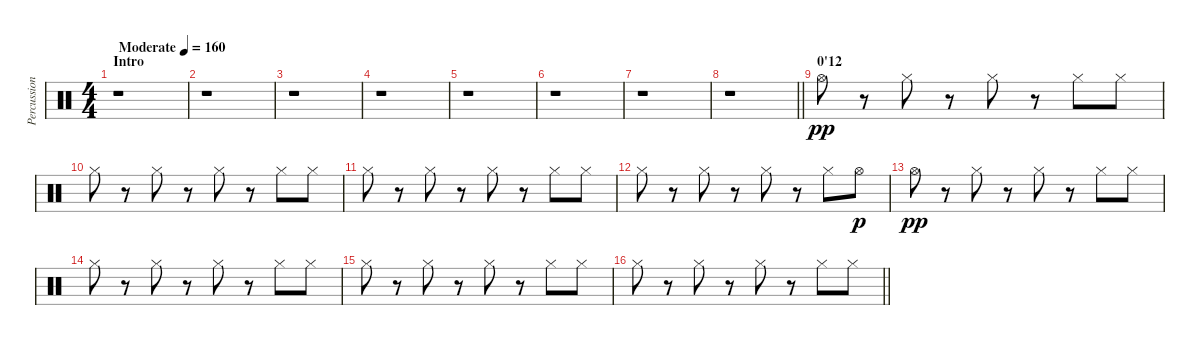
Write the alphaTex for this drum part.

\track ("Percussions" "Percussion") {instrument percussion}
\staff {score}
\articulation defaults
\ts (4 4)
\section ("" "Intro")
\tempo (160 "Moderate")
\clef neutral
\ks c
r.1{dy pp} |
r.1 |
r.1 |
r.1 |
r.1 |
r.1 |
r.1 |
\barLineRight lightlight
r.1 |
\section ("" "0'12")
"Hi-Hat (open)".8 r.8 "Hi-Hat (closed)".8 r.8 "Hi-Hat (closed)".8 r.8 "Hi-Hat (closed)".8 "Hi-Hat (closed)".8 |
"Hi-Hat (closed)".8 r.8 "Hi-Hat (closed)".8 r.8 "Hi-Hat (closed)".8 r.8 "Hi-Hat (closed)".8 "Hi-Hat (closed)".8 |
"Hi-Hat (closed)".8 r.8 "Hi-Hat (closed)".8 r.8 "Hi-Hat (closed)".8 r.8 "Hi-Hat (closed)".8 "Hi-Hat (closed)".8 |
"Hi-Hat (closed)".8 r.8 "Hi-Hat (closed)".8 r.8 "Hi-Hat (closed)".8 r.8 "Hi-Hat (closed)".8 "Hi-Hat (open)".8{dy p} |
"Hi-Hat (open)".8{dy pp} r.8 "Hi-Hat (closed)".8 r.8 "Hi-Hat (closed)".8 r.8 "Hi-Hat (closed)".8 "Hi-Hat (closed)".8 |
"Hi-Hat (closed)".8 r.8 "Hi-Hat (closed)".8 r.8 "Hi-Hat (closed)".8 r.8 "Hi-Hat (closed)".8 "Hi-Hat (closed)".8 |
"Hi-Hat (closed)".8 r.8 "Hi-Hat (closed)".8 r.8 "Hi-Hat (closed)".8 r.8 "Hi-Hat (closed)".8 "Hi-Hat (closed)".8 |
\barLineRight lightlight "Hi-Hat (closed)".8
r.8 "Hi-Hat (closed)".8 r.8 "Hi-Hat (closed)".8 r.8 "Hi-Hat (closed)".8 "Hi-Hat (closed)".8
